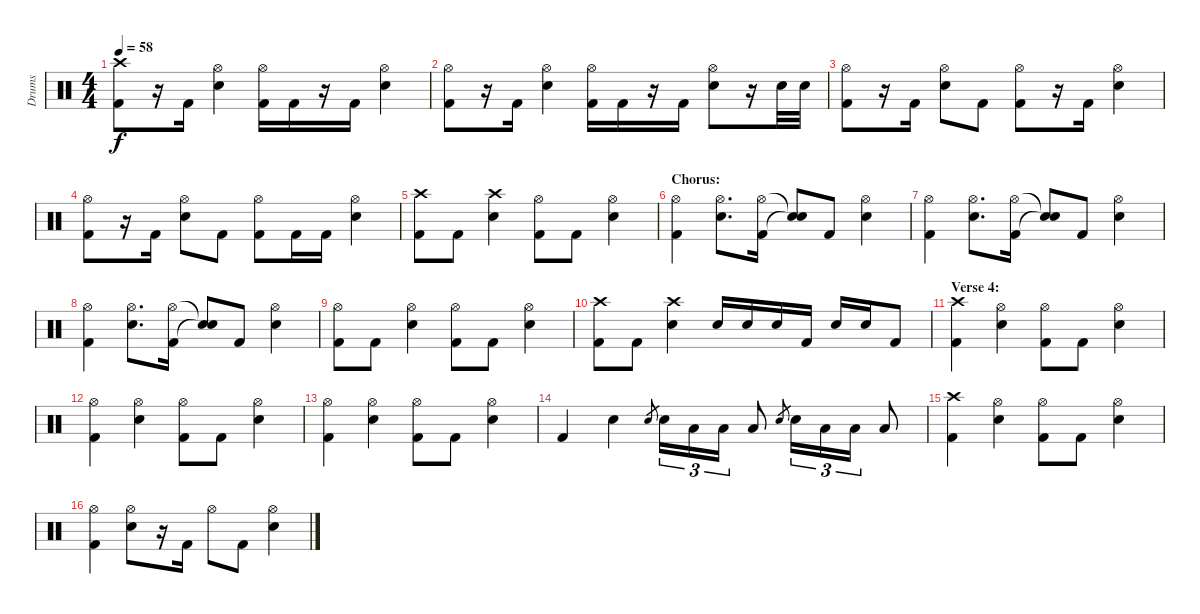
\track ("Drums" "Drums") {instrument percussion}
\staff {score}
\articulation defaults
\ts (4 4)
\tempo 58
\clef neutral
\ks c
("Crash high (hit)" "Kick (hit) 2").8{dy f} r.16 "Kick (hit) 2".16 ("Hi-Hat (open)" "Snare (hit) 2").4 ("Hi-Hat (open)" "Kick (hit) 2").16 "Kick (hit) 2".16 r.16 "Kick (hit) 2".16 ("Hi-Hat (open)" "Snare (hit) 2").4 |
("Hi-Hat (open)" "Kick (hit) 2").8 r.16 "Kick (hit) 2".16 ("Hi-Hat (open)" "Snare (hit) 2").4 ("Hi-Hat (open)" "Kick (hit) 2").16 "Kick (hit) 2".16 r.16 "Kick (hit) 2".16 ("Hi-Hat (open)" "Snare (hit) 2").8 r.16 "Snare (hit) 2".32 "Snare (hit) 2".32 |
("Hi-Hat (open)" "Kick (hit) 2").8 r.16 "Kick (hit) 2".16 ("Hi-Hat (open)" "Snare (hit) 2").8 "Kick (hit) 2".8 ("Hi-Hat (open)" "Kick (hit) 2").8 r.16 "Kick (hit) 2".16 ("Hi-Hat (open)" "Snare (hit) 2").4 |
("Hi-Hat (open)" "Kick (hit) 2").8 r.16 "Kick (hit) 2".16 ("Hi-Hat (open)" "Snare (hit) 2").8 "Kick (hit) 2".8 ("Hi-Hat (open)" "Kick (hit) 2").8 "Kick (hit) 2".16 "Kick (hit) 2".16 ("Hi-Hat (open)" "Snare (hit) 2").4 |
("Crash high (hit)" "Kick (hit) 2").8 "Kick (hit) 2".8 ("Crash high (hit)" "Snare (hit) 2").4 ("Hi-Hat (open)" "Kick (hit) 2").8 "Kick (hit) 2".8 ("Hi-Hat (open)" "Snare (hit) 2").4 |
\section ("" "Chorus:")
("Hi-Hat (open)" "Kick (hit) 2").4 ("Hi-Hat (open)" "Snare (hit) 2").8{d} ("Hi-Hat (open)" "Kick (hit) 2").16 ("Snare (hit)"{t} "Snare (hit)"{t}).8 "Kick (hit) 2".8 ("Hi-Hat (open)" "Snare (hit) 2").4 |
("Hi-Hat (open)" "Kick (hit) 2").4 ("Hi-Hat (open)" "Snare (hit) 2").8{d} ("Hi-Hat (open)" "Kick (hit) 2").16 ("Snare (hit)"{t} "Snare (hit)"{t}).8 "Kick (hit) 2".8 ("Hi-Hat (open)" "Snare (hit) 2").4 |
("Hi-Hat (open)" "Kick (hit) 2").4 ("Hi-Hat (open)" "Snare (hit) 2").8{d} ("Hi-Hat (open)" "Kick (hit) 2").16 ("Snare (hit)"{t} "Snare (hit)"{t}).8 "Kick (hit) 2".8 ("Hi-Hat (open)" "Snare (hit) 2").4 |
("Hi-Hat (open)" "Kick (hit) 2").8 "Kick (hit) 2".8 ("Hi-Hat (open)" "Snare (hit) 2").4 ("Hi-Hat (open)" "Kick (hit) 2").8 "Kick (hit) 2".8 ("Hi-Hat (open)" "Snare (hit) 2").4 |
("Crash high (hit)" "Kick (hit) 2").8 "Kick (hit) 2".8 ("Crash high (hit)" "Snare (hit) 2").4 "Snare (hit) 2".16 "Snare (hit) 2".16 "Snare (hit) 2".16 "Kick (hit) 2".16 "Snare (hit) 2".16 "Snare (hit) 2".16 "Kick (hit) 2".8 |
\section ("" "Verse 4:")
("Crash high (hit)" "Kick (hit) 2").4 ("Hi-Hat (open)" "Snare (hit) 2").4 ("Hi-Hat (open)" "Kick (hit) 2").8 "Kick (hit) 2".8 ("Hi-Hat (open)" "Snare (hit) 2").4 |
("Hi-Hat (open)" "Kick (hit) 2").4 ("Hi-Hat (open)" "Snare (hit) 2").4 ("Hi-Hat (open)" "Kick (hit) 2").8 "Kick (hit) 2".8 ("Hi-Hat (open)" "Snare (hit) 2").4 |
("Hi-Hat (open)" "Kick (hit) 2").4 ("Hi-Hat (open)" "Snare (hit) 2").4 ("Hi-Hat (open)" "Kick (hit) 2").8 "Kick (hit) 2".8 ("Hi-Hat (open)" "Snare (hit) 2").4 |
"Kick (hit) 2".4 "Snare (hit) 2".4 "Snare (hit) 2".8{gr} "Snare (hit) 2".16{tu (3 2)} "Low Tom (hit)".16{tu (3 2)} "Low Tom (hit)".16{tu (3 2)} "Low Tom (hit)".8 "Snare (hit) 2".8{gr} "Snare (hit) 2".16{tu (3 2)} "Low Tom (hit)".16{tu (3 2)} "Low Tom (hit)".16{tu (3 2)} "Low Tom (hit)".8 |
("Crash high (hit)" "Kick (hit) 2").4 ("Hi-Hat (open)" "Snare (hit) 2").4 ("Hi-Hat (open)" "Kick (hit) 2").8 "Kick (hit) 2".8 ("Hi-Hat (open)" "Snare (hit) 2").4 |
("Hi-Hat (open)" "Kick (hit) 2").4 ("Hi-Hat (open)" "Snare (hit) 2").8 r.16 "Kick (hit) 2".16 "Hi-Hat (open)".8 "Kick (hit) 2".8 ("Hi-Hat (open)" "Snare (hit) 2").4
